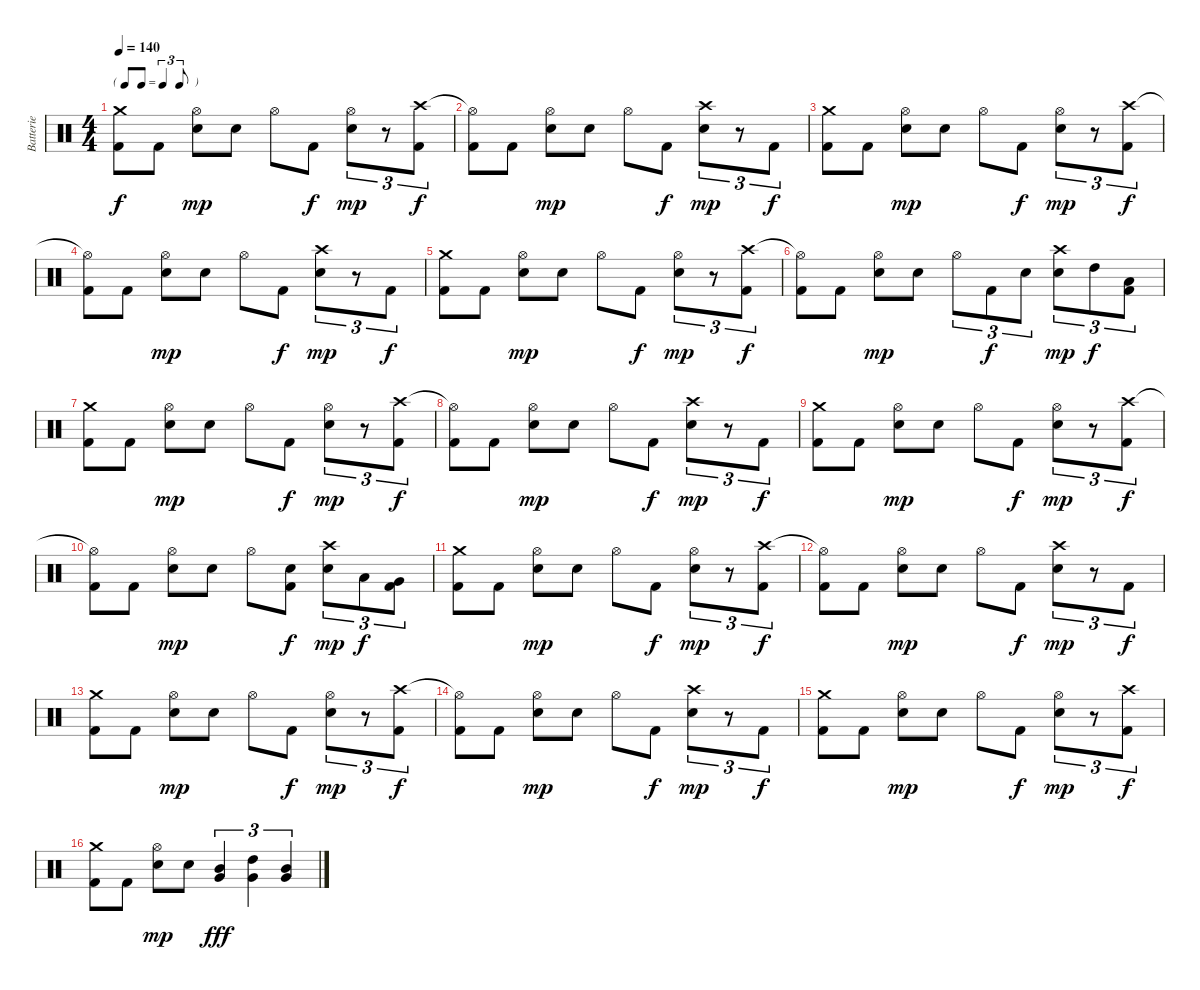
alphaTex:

\track ("Batterie" "Batterie") {instrument percussion}
\staff {score}
\articulation defaults
\ts (4 4)
\tf triplet8th
\tempo 140
\clef neutral
\ks c
("Crash medium (hit)" "Kick (hit) 2").8{dy f} "Kick (hit) 2".8 ("Hi-Hat (open)" "Electric Snare (hit)").8{dy mp} "Electric Snare (hit)".8 "Hi-Hat (open)".8 "Kick (hit) 2".8{dy f} ("Hi-Hat (open)" "Electric Snare (hit)").8{tu (3 2) dy mp} r.8{tu (3 2)} ("Crash high (hit)" "Kick (hit) 2").8{tu (3 2) dy f} |
("Hi-Hat (open)"{t} "Kick (hit) 2").8 "Kick (hit) 2".8 ("Hi-Hat (open)" "Electric Snare (hit)").8{dy mp} "Electric Snare (hit)".8 "Hi-Hat (open)".8 "Kick (hit) 2".8{dy f} ("Crash high (hit)" "Electric Snare (hit)").8{tu (3 2) dy mp} r.8{tu (3 2)} "Kick (hit) 2".8{tu (3 2) dy f} |
("Crash medium (hit)" "Kick (hit) 2").8 "Kick (hit) 2".8 ("Hi-Hat (open)" "Electric Snare (hit)").8{dy mp} "Electric Snare (hit)".8 "Hi-Hat (open)".8 "Kick (hit) 2".8{dy f} ("Hi-Hat (open)" "Electric Snare (hit)").8{tu (3 2) dy mp} r.8{tu (3 2)} ("Crash high (hit)" "Kick (hit) 2").8{tu (3 2) dy f} |
("Hi-Hat (open)"{t} "Kick (hit) 2").8 "Kick (hit) 2".8 ("Hi-Hat (open)" "Electric Snare (hit)").8{dy mp} "Electric Snare (hit)".8 "Hi-Hat (open)".8 "Kick (hit) 2".8{dy f} ("Crash high (hit)" "Electric Snare (hit)").8{tu (3 2) dy mp} r.8{tu (3 2)} "Kick (hit) 2".8{tu (3 2) dy f} |
("Crash medium (hit)" "Kick (hit) 2").8 "Kick (hit) 2".8 ("Hi-Hat (open)" "Electric Snare (hit)").8{dy mp} "Electric Snare (hit)".8 "Hi-Hat (open)".8 "Kick (hit) 2".8{dy f} ("Hi-Hat (open)" "Electric Snare (hit)").8{tu (3 2) dy mp} r.8{tu (3 2)} ("Crash high (hit)" "Kick (hit) 2").8{tu (3 2) dy f} |
("Hi-Hat (open)"{t} "Kick (hit) 2").8 "Kick (hit) 2".8 ("Hi-Hat (open)" "Electric Snare (hit)").8{dy mp} "Electric Snare (hit)".8 "Hi-Hat (open)".8{tu (3 2)} "Kick (hit) 2".8{tu (3 2) dy f} "Electric Snare (hit)".8{tu (3 2)} ("Crash high (hit)" "Electric Snare (hit)").8{tu (3 2) dy mp} "High Tom (hit)".8{tu (3 2) dy f} ("Low Tom (hit)" "Kick (hit) 2").8{tu (3 2)} |
("Crash medium (hit)" "Kick (hit) 2").8 "Kick (hit) 2".8 ("Hi-Hat (open)" "Electric Snare (hit)").8{dy mp} "Electric Snare (hit)".8 "Hi-Hat (open)".8 "Kick (hit) 2".8{dy f} ("Hi-Hat (open)" "Electric Snare (hit)").8{tu (3 2) dy mp} r.8{tu (3 2)} ("Crash high (hit)" "Kick (hit) 2").8{tu (3 2) dy f} |
("Hi-Hat (open)"{t} "Kick (hit) 2").8 "Kick (hit) 2".8 ("Hi-Hat (open)" "Electric Snare (hit)").8{dy mp} "Electric Snare (hit)".8 "Hi-Hat (open)".8 "Kick (hit) 2".8{dy f} ("Crash high (hit)" "Electric Snare (hit)").8{tu (3 2) dy mp} r.8{tu (3 2)} "Kick (hit) 2".8{tu (3 2) dy f} |
("Crash medium (hit)" "Kick (hit) 2").8 "Kick (hit) 2".8 ("Hi-Hat (open)" "Electric Snare (hit)").8{dy mp} "Electric Snare (hit)".8 "Hi-Hat (open)".8 "Kick (hit) 2".8{dy f} ("Hi-Hat (open)" "Electric Snare (hit)").8{tu (3 2) dy mp} r.8{tu (3 2)} ("Crash high (hit)" "Kick (hit) 2").8{tu (3 2) dy f} |
("Hi-Hat (open)"{t} "Kick (hit) 2").8 "Kick (hit) 2".8 ("Hi-Hat (open)" "Electric Snare (hit)").8{dy mp} "Electric Snare (hit)".8 "Hi-Hat (open)".8 ("Electric Snare (hit)" "Kick (hit) 2").8{dy f} ("Crash high (hit)" "Electric Snare (hit)").8{tu (3 2) dy mp} "Low Tom (hit)".8{tu (3 2) dy f} ("Very Low Tom (hit)" "Kick (hit) 2").8{tu (3 2)} |
("Crash medium (hit)" "Kick (hit) 2").8 "Kick (hit) 2".8 ("Hi-Hat (open)" "Electric Snare (hit)").8{dy mp} "Electric Snare (hit)".8 "Hi-Hat (open)".8 "Kick (hit) 2".8{dy f} ("Hi-Hat (open)" "Electric Snare (hit)").8{tu (3 2) dy mp} r.8{tu (3 2)} ("Crash high (hit)" "Kick (hit) 2").8{tu (3 2) dy f} |
("Hi-Hat (open)"{t} "Kick (hit) 2").8 "Kick (hit) 2".8 ("Hi-Hat (open)" "Electric Snare (hit)").8{dy mp} "Electric Snare (hit)".8 "Hi-Hat (open)".8 "Kick (hit) 2".8{dy f} ("Crash high (hit)" "Electric Snare (hit)").8{tu (3 2) dy mp} r.8{tu (3 2)} "Kick (hit) 2".8{tu (3 2) dy f} |
("Crash medium (hit)" "Kick (hit) 2").8 "Kick (hit) 2".8 ("Hi-Hat (open)" "Electric Snare (hit)").8{dy mp} "Electric Snare (hit)".8 "Hi-Hat (open)".8 "Kick (hit) 2".8{dy f} ("Hi-Hat (open)" "Electric Snare (hit)").8{tu (3 2) dy mp} r.8{tu (3 2)} ("Crash high (hit)" "Kick (hit) 2").8{tu (3 2) dy f} |
("Hi-Hat (open)"{t} "Kick (hit) 2").8 "Kick (hit) 2".8 ("Hi-Hat (open)" "Electric Snare (hit)").8{dy mp} "Electric Snare (hit)".8 "Hi-Hat (open)".8 "Kick (hit) 2".8{dy f} ("Crash high (hit)" "Electric Snare (hit)").8{tu (3 2) dy mp} r.8{tu (3 2)} "Kick (hit) 2".8{tu (3 2) dy f} |
("Crash medium (hit)" "Kick (hit) 2").8 "Kick (hit) 2".8 ("Hi-Hat (open)" "Electric Snare (hit)").8{dy mp} "Electric Snare (hit)".8 "Hi-Hat (open)".8 "Kick (hit) 2".8{dy f} ("Hi-Hat (open)" "Electric Snare (hit)").8{tu (3 2) dy mp} r.8{tu (3 2)} ("Crash high (hit)" "Kick (hit) 2").8{tu (3 2) dy f} |
("Crash medium (hit)" "Kick (hit) 2").8 "Kick (hit) 2".8 ("Hi-Hat (open)" "Electric Snare (hit)").8{dy mp} "Electric Snare (hit)".8 ("Mid Tom (hit)" "Very Low Tom (hit)").4{tu (3 2) dy fff} ("High Tom (hit)" "Very Low Tom (hit)").4{tu (3 2)} ("Mid Tom (hit)" "Very Low Tom (hit)").4{tu (3 2)}
